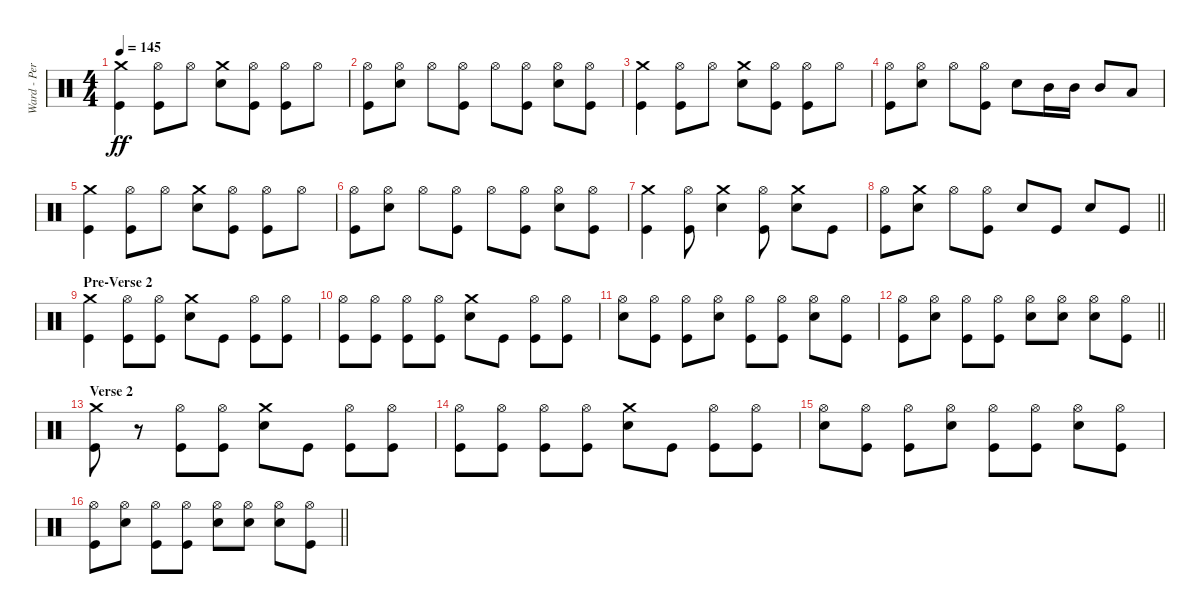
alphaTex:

\track ("Ward - Percussion" "Ward - Per") {instrument percussion}
\staff {score}
\articulation defaults
\ts (4 4)
\tempo 145
\clef neutral
\ks c
("Kick (hit)" "Crash medium (hit)").4{dy ff} ("Hi-Hat (open)" "Kick (hit)").8 "Hi-Hat (open)".8 ("Snare (hit) 2" "Crash medium (hit)").8 ("Kick (hit)" "Hi-Hat (open)").8 ("Hi-Hat (open)" "Kick (hit)").8 "Hi-Hat (open)".8 |
("Kick (hit)" "Hi-Hat (open)").8 ("Hi-Hat (open)" "Snare (hit) 2").8 "Hi-Hat (open)".8 ("Hi-Hat (open)" "Kick (hit)").8 "Hi-Hat (open)".8 ("Kick (hit)" "Hi-Hat (open)").8 ("Snare (hit) 2" "Hi-Hat (open)").8 ("Hi-Hat (open)" "Kick (hit)").8 |
("Crash medium (hit)" "Kick (hit)").4 ("Hi-Hat (open)" "Kick (hit)").8 "Hi-Hat (open)".8 ("Snare (hit) 2" "Crash medium (hit)").8 ("Kick (hit)" "Hi-Hat (open)").8 ("Hi-Hat (open)" "Kick (hit)").8 "Hi-Hat (open)".8 |
("Kick (hit)" "Hi-Hat (open)").8 ("Hi-Hat (open)" "Snare (hit) 2").8 "Hi-Hat (open)".8 ("Hi-Hat (open)" "Kick (hit)").8 "Snare (hit) 2".8 "Mid Tom (hit)".16 "Mid Tom (hit)".16 "Mid Tom (hit)".8 "Low Floor Tom (hit)".8 |
("Crash medium (hit)" "Kick (hit)").4 ("Hi-Hat (open)" "Kick (hit)").8 "Hi-Hat (open)".8 ("Crash medium (hit)" "Snare (hit) 2").8 ("Hi-Hat (open)" "Kick (hit)").8 ("Hi-Hat (open)" "Kick (hit)").8 "Hi-Hat (open)".8 |
("Kick (hit)" "Hi-Hat (open)").8 ("Hi-Hat (open)" "Snare (hit) 2").8 "Hi-Hat (open)".8 ("Hi-Hat (open)" "Kick (hit)").8 "Hi-Hat (open)".8 ("Kick (hit)" "Hi-Hat (open)").8 ("Snare (hit) 2" "Hi-Hat (open)").8 ("Hi-Hat (open)" "Kick (hit)").8 |
("Crash medium (hit)" "Kick (hit)").4 ("Hi-Hat (open)" "Kick (hit)").8 ("Crash medium (hit)" "Snare (hit) 2").4 ("Hi-Hat (open)" "Kick (hit)").8 ("Crash medium (hit)" "Snare (hit) 2").8 "Kick (hit)".8 |
\barLineRight lightlight
("Kick (hit)" "Hi-Hat (open)").8 ("Crash medium (hit)" "Snare (hit) 2").8 "Hi-Hat (open)".8 ("Hi-Hat (open)" "Kick (hit)").8 "Snare (hit) 2".8 "Kick (hit)".8 "Snare (hit) 2".8 "Kick (hit)".8 |
\section ("" "Pre-Verse 2")
("Kick (hit)" "Crash medium (hit)").4 ("Hi-Hat (open)" "Kick (hit)").8 ("Hi-Hat (open)" "Kick (hit)").8 ("Snare (hit) 2" "Crash medium (hit)").8 "Kick (hit)".8 ("Hi-Hat (open)" "Kick (hit)").8 ("Hi-Hat (open)" "Kick (hit)").8 |
("Hi-Hat (open)" "Kick (hit)").8 ("Hi-Hat (open)" "Kick (hit)").8 ("Kick (hit)" "Hi-Hat (open)").8 ("Hi-Hat (open)" "Kick (hit)").8 ("Snare (hit) 2" "Crash medium (hit)").8 "Kick (hit)".8 ("Hi-Hat (open)" "Kick (hit)").8 ("Hi-Hat (open)" "Kick (hit)").8 |
("Hi-Hat (open)" "Snare (hit) 2").8 ("Hi-Hat (open)" "Kick (hit)").8 ("Hi-Hat (open)" "Kick (hit)").8 ("Snare (hit) 2" "Hi-Hat (open)").8 ("Hi-Hat (open)" "Kick (hit)").8 ("Hi-Hat (open)" "Kick (hit)").8 ("Snare (hit) 2" "Hi-Hat (open)").8 ("Hi-Hat (open)" "Kick (hit)").8 |
\barLineRight lightlight
("Hi-Hat (open)" "Kick (hit)").8 ("Snare (hit) 2" "Hi-Hat (open)").8 ("Hi-Hat (open)" "Kick (hit)").8 ("Hi-Hat (open)" "Kick (hit)").8 ("Hi-Hat (open)" "Snare (hit) 2").8 ("Hi-Hat (open)" "Snare (hit) 2").8 ("Hi-Hat (open)" "Snare (hit) 2").8 ("Hi-Hat (open)" "Kick (hit)").8 |
\section ("" "Verse 2")
("Kick (hit)" "Crash medium (hit)").8 r.8 ("Hi-Hat (open)" "Kick (hit)").8 ("Hi-Hat (open)" "Kick (hit)").8 ("Snare (hit) 2" "Crash medium (hit)").8 "Kick (hit)".8 ("Hi-Hat (open)" "Kick (hit)").8 ("Hi-Hat (open)" "Kick (hit)").8 |
("Hi-Hat (open)" "Kick (hit)").8 ("Hi-Hat (open)" "Kick (hit)").8 ("Kick (hit)" "Hi-Hat (open)").8 ("Hi-Hat (open)" "Kick (hit)").8 ("Snare (hit) 2" "Crash medium (hit)").8 "Kick (hit)".8 ("Hi-Hat (open)" "Kick (hit)").8 ("Hi-Hat (open)" "Kick (hit)").8 |
("Hi-Hat (open)" "Snare (hit) 2").8 ("Hi-Hat (open)" "Kick (hit)").8 ("Hi-Hat (open)" "Kick (hit)").8 ("Snare (hit) 2" "Hi-Hat (open)").8 ("Hi-Hat (open)" "Kick (hit)").8 ("Hi-Hat (open)" "Kick (hit)").8 ("Snare (hit) 2" "Hi-Hat (open)").8 ("Hi-Hat (open)" "Kick (hit)").8 |
\barLineRight lightlight
("Hi-Hat (open)" "Kick (hit)").8 ("Snare (hit) 2" "Hi-Hat (open)").8 ("Hi-Hat (open)" "Kick (hit)").8 ("Hi-Hat (open)" "Kick (hit)").8 ("Hi-Hat (open)" "Snare (hit) 2").8 ("Hi-Hat (open)" "Snare (hit) 2").8 ("Hi-Hat (open)" "Snare (hit) 2").8 ("Hi-Hat (open)" "Kick (hit)").8
